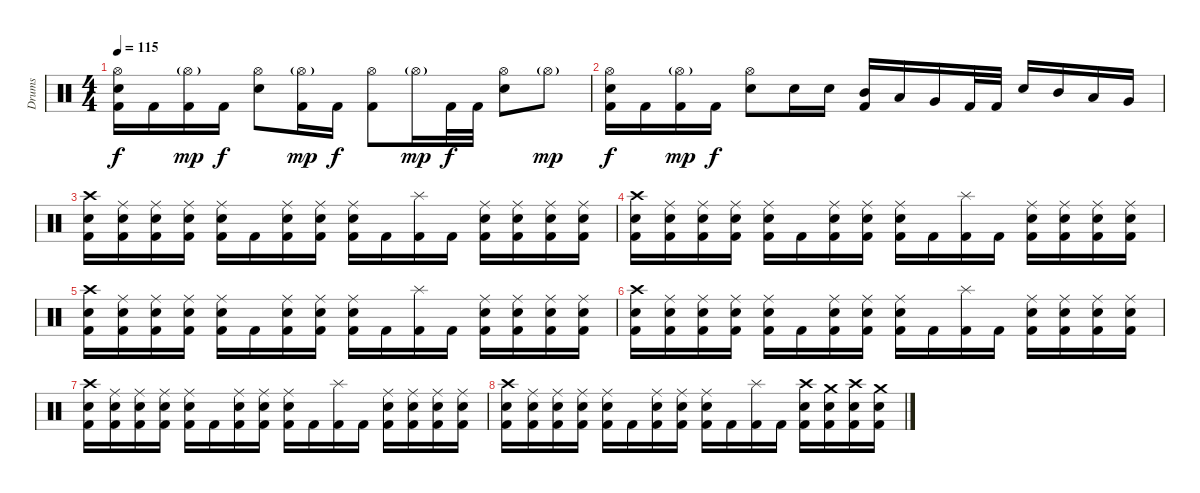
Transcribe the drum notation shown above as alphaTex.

\track ("Drums" "Drums") {instrument percussion}
\staff {score}
\articulation defaults
\ts (4 4)
\tempo 115
\clef neutral
\ks c
("Hi-Hat (open)" "Electric Snare (hit)" "Kick (hit) 2").16{dy f} "Kick (hit) 2".16 ("Hi-Hat (open)"{g} "Kick (hit) 2").16{dy mp} "Kick (hit) 2".16{dy f} ("Hi-Hat (open)" "Electric Snare (hit)").8 ("Hi-Hat (open)"{g} "Kick (hit) 2").16{dy mp} "Kick (hit) 2".16{dy f} ("Hi-Hat (open)" "Kick (hit) 2").8 "Hi-Hat (open)"{g}.16{dy mp} "Kick (hit) 2".32{dy f} "Kick (hit) 2".32 ("Hi-Hat (open)" "Electric Snare (hit)").8 "Hi-Hat (open)"{g}.8{dy mp} |
("Hi-Hat (open)" "Electric Snare (hit)" "Kick (hit) 2").16{dy f} "Kick (hit) 2".16 ("Hi-Hat (open)"{g} "Kick (hit) 2").16{dy mp} "Kick (hit) 2".16{dy f} ("Hi-Hat (open)" "Electric Snare (hit)").8 "Electric Snare (hit)".16 "Electric Snare (hit)".16 ("Mid Tom (hit)" "Kick (hit) 2").16 "Low Tom (hit)".16 "Very Low Tom (hit)".16 "Kick (hit) 2".32 "Kick (hit) 2".32 "Electric Snare (hit)".16 "Mid Tom (hit)".16 "Low Tom (hit)".16 "Very Low Tom (hit)".16 |
("Crash high (hit)" "Electric Snare (hit)" "Kick (hit) 2").16 ("Ride (middle)" "Electric Snare (hit)" "Kick (hit) 2").16 ("Ride (middle)" "Electric Snare (hit)" "Kick (hit) 2").16 ("Ride (middle)" "Electric Snare (hit)" "Kick (hit) 2").16 ("Ride (middle)" "Electric Snare (hit)" "Kick (hit) 2").16 "Kick (hit) 2".16 ("Ride (middle)" "Electric Snare (hit)" "Kick (hit) 2").16 ("Ride (middle)" "Electric Snare (hit)" "Kick (hit) 2").16 ("Ride (middle)" "Electric Snare (hit)" "Kick (hit) 2").16 "Kick (hit) 2".16 ("Splash (hit)" "Kick (hit) 2").16 "Kick (hit) 2".16 ("Ride (middle)" "Electric Snare (hit)" "Kick (hit) 2").16 ("Ride (middle)" "Electric Snare (hit)" "Kick (hit) 2").16 ("Ride (middle)" "Electric Snare (hit)" "Kick (hit) 2").16 ("Ride (middle)" "Electric Snare (hit)" "Kick (hit) 2").16 |
("Crash high (hit)" "Electric Snare (hit)" "Kick (hit) 2").16 ("Ride (middle)" "Electric Snare (hit)" "Kick (hit) 2").16 ("Ride (middle)" "Electric Snare (hit)" "Kick (hit) 2").16 ("Ride (middle)" "Electric Snare (hit)" "Kick (hit) 2").16 ("Ride (middle)" "Electric Snare (hit)" "Kick (hit) 2").16 "Kick (hit) 2".16 ("Ride (middle)" "Electric Snare (hit)" "Kick (hit) 2").16 ("Ride (middle)" "Electric Snare (hit)" "Kick (hit) 2").16 ("Ride (middle)" "Electric Snare (hit)" "Kick (hit) 2").16 "Kick (hit) 2".16 ("Splash (hit)" "Kick (hit) 2").16 "Kick (hit) 2".16 ("Ride (middle)" "Electric Snare (hit)" "Kick (hit) 2").16 ("Ride (middle)" "Electric Snare (hit)" "Kick (hit) 2").16 ("Ride (middle)" "Electric Snare (hit)" "Kick (hit) 2").16 ("Ride (middle)" "Electric Snare (hit)" "Kick (hit) 2").16 |
("Crash high (hit)" "Electric Snare (hit)" "Kick (hit) 2").16 ("Ride (middle)" "Electric Snare (hit)" "Kick (hit) 2").16 ("Ride (middle)" "Electric Snare (hit)" "Kick (hit) 2").16 ("Ride (middle)" "Electric Snare (hit)" "Kick (hit) 2").16 ("Ride (middle)" "Electric Snare (hit)" "Kick (hit) 2").16 "Kick (hit) 2".16 ("Ride (middle)" "Electric Snare (hit)" "Kick (hit) 2").16 ("Ride (middle)" "Electric Snare (hit)" "Kick (hit) 2").16 ("Ride (middle)" "Electric Snare (hit)" "Kick (hit) 2").16 "Kick (hit) 2".16 ("Splash (hit)" "Kick (hit) 2").16 "Kick (hit) 2".16 ("Ride (middle)" "Electric Snare (hit)" "Kick (hit) 2").16 ("Ride (middle)" "Electric Snare (hit)" "Kick (hit) 2").16 ("Ride (middle)" "Electric Snare (hit)" "Kick (hit) 2").16 ("Ride (middle)" "Electric Snare (hit)" "Kick (hit) 2").16 |
("Crash high (hit)" "Electric Snare (hit)" "Kick (hit) 2").16 ("Ride (middle)" "Electric Snare (hit)" "Kick (hit) 2").16 ("Ride (middle)" "Electric Snare (hit)" "Kick (hit) 2").16 ("Ride (middle)" "Electric Snare (hit)" "Kick (hit) 2").16 ("Ride (middle)" "Electric Snare (hit)" "Kick (hit) 2").16 "Kick (hit) 2".16 ("Ride (middle)" "Electric Snare (hit)" "Kick (hit) 2").16 ("Ride (middle)" "Electric Snare (hit)" "Kick (hit) 2").16 ("Ride (middle)" "Electric Snare (hit)" "Kick (hit) 2").16 "Kick (hit) 2".16 ("Splash (hit)" "Kick (hit) 2").16 "Kick (hit) 2".16 ("Ride (middle)" "Electric Snare (hit)" "Kick (hit) 2").16 ("Ride (middle)" "Electric Snare (hit)" "Kick (hit) 2").16 ("Ride (middle)" "Electric Snare (hit)" "Kick (hit) 2").16 ("Ride (middle)" "Electric Snare (hit)" "Kick (hit) 2").16 |
("Crash high (hit)" "Electric Snare (hit)" "Kick (hit) 2").16 ("Ride (middle)" "Electric Snare (hit)" "Kick (hit) 2").16 ("Ride (middle)" "Electric Snare (hit)" "Kick (hit) 2").16 ("Ride (middle)" "Electric Snare (hit)" "Kick (hit) 2").16 ("Ride (middle)" "Electric Snare (hit)" "Kick (hit) 2").16 "Kick (hit) 2".16 ("Ride (middle)" "Electric Snare (hit)" "Kick (hit) 2").16 ("Ride (middle)" "Electric Snare (hit)" "Kick (hit) 2").16 ("Ride (middle)" "Electric Snare (hit)" "Kick (hit) 2").16 "Kick (hit) 2".16 ("Splash (hit)" "Kick (hit) 2").16 "Kick (hit) 2".16 ("Ride (middle)" "Electric Snare (hit)" "Kick (hit) 2").16 ("Ride (middle)" "Electric Snare (hit)" "Kick (hit) 2").16 ("Ride (middle)" "Electric Snare (hit)" "Kick (hit) 2").16 ("Ride (middle)" "Electric Snare (hit)" "Kick (hit) 2").16 |
("Crash high (hit)" "Electric Snare (hit)" "Kick (hit) 2").16 ("Ride (middle)" "Electric Snare (hit)" "Kick (hit) 2").16 ("Ride (middle)" "Electric Snare (hit)" "Kick (hit) 2").16 ("Ride (middle)" "Electric Snare (hit)" "Kick (hit) 2").16 ("Ride (middle)" "Electric Snare (hit)" "Kick (hit) 2").16 "Kick (hit) 2".16 ("Ride (middle)" "Electric Snare (hit)" "Kick (hit) 2").16 ("Ride (middle)" "Electric Snare (hit)" "Kick (hit) 2").16 ("Ride (middle)" "Electric Snare (hit)" "Kick (hit) 2").16 "Kick (hit) 2".16 ("Splash (hit)" "Kick (hit) 2").16 "Kick (hit) 2".16 ("Crash high (hit)" "Electric Snare (hit)" "Kick (hit) 2").16 ("Crash medium (hit)" "Electric Snare (hit)" "Kick (hit) 2").16 ("Crash high (hit)" "Electric Snare (hit)" "Kick (hit) 2").16 ("Crash medium (hit)" "Electric Snare (hit)" "Kick (hit) 2").16
